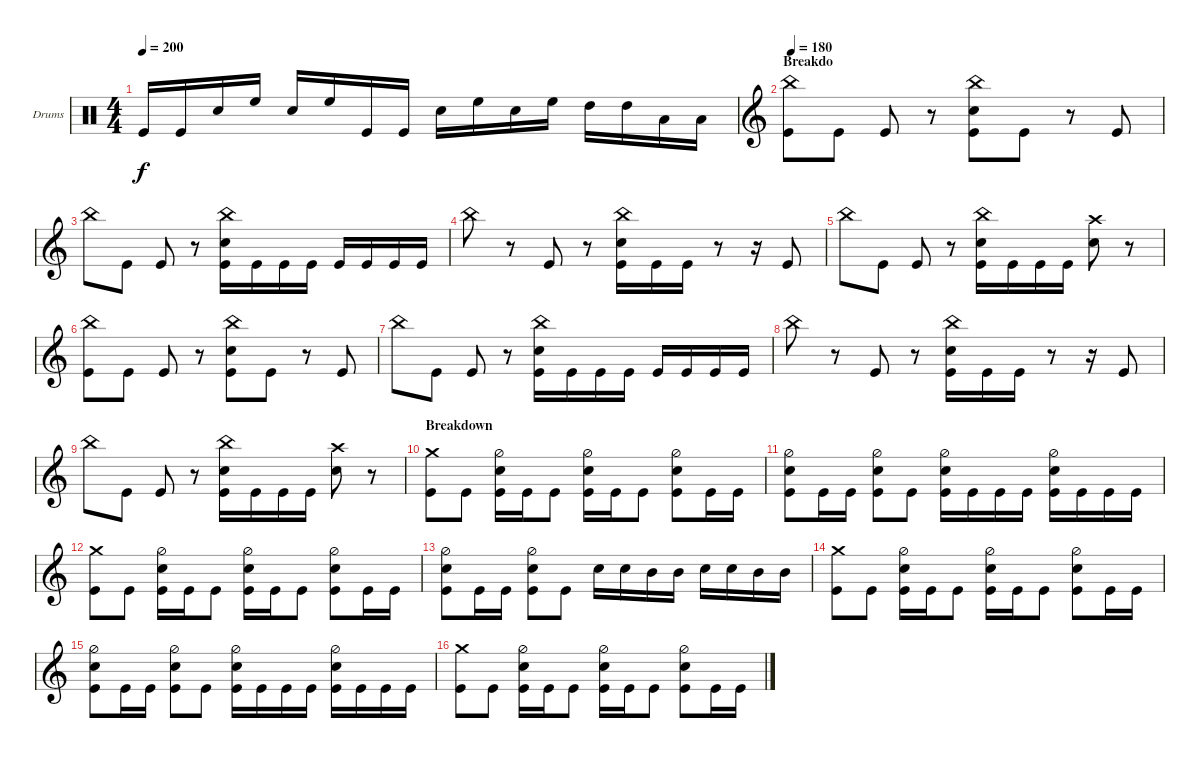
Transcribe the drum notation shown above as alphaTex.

\defaultSystemsLayout 4
\bracketExtendMode groupsimilarinstruments
\firstSystemTrackNameOrientation horizontal
\otherSystemsTrackNameOrientation horizontal
\track ("Drumkit" "Drums") {instrument percussion}
\staff {score}
\articulation defaults
\ts (4 4)
\tempo 200
\clef neutral
\ks c "Kick (hit)".16{dy f} "Kick (hit)".16 "Snare (hit) 2".16 "High Floor Tom (hit)".16 "Snare (hit) 2".16 "High Floor Tom (hit)".16 "Kick (hit)".16 "Kick (hit)".16 "Snare (hit) 2".16 "High Floor Tom (hit)".16 "Snare (hit) 2".16 "High Floor Tom (hit)".16 "High Tom (hit)".16 "High Tom (hit)".16 "Low Tom (hit)".16 "Low Tom (hit)".16
|
\section ("" "Breakdo")
\tempo 180
\clef g2
("Kick (hit)" "China (hit)").8 "Kick (hit)".8 "Kick (hit)".8 r.8 ("Kick (hit)" "China (hit)" "Snare (hit) 2").8 "Kick (hit)".8 r.8 "Kick (hit)".8 |
"China (hit)".8 "Kick (hit)".8 "Kick (hit)".8 r.8 ("Kick (hit)" "China (hit)" "Snare (hit) 2").16 "Kick (hit)".16 "Kick (hit)".16 "Kick (hit)".16 "Kick (hit)".16 "Kick (hit)".16 "Kick (hit)".16 "Kick (hit)".16 |
"China (hit)".8 r.8 "Kick (hit)".8 r.8 ("Kick (hit)" "China (hit)" "Snare (hit) 2").16 "Kick (hit)".16 "Kick (hit)".16 r.8 r.16 "Kick (hit)".8 |
"China (hit)".8 "Kick (hit)".8 "Kick (hit)".8 r.8 ("Kick (hit)" "China (hit)" "Snare (hit) 2").16 "Kick (hit)".16 "Kick (hit)".16 "Kick (hit)".16 ("Snare (hit) 2" "Crash high (hit)").8 r.8 |
("Kick (hit)" "China (hit)").8 "Kick (hit)".8 "Kick (hit)".8 r.8 ("Kick (hit)" "China (hit)" "Snare (hit) 2").8 "Kick (hit)".8 r.8 "Kick (hit)".8 |
"China (hit)".8 "Kick (hit)".8 "Kick (hit)".8 r.8 ("Kick (hit)" "China (hit)" "Snare (hit) 2").16 "Kick (hit)".16 "Kick (hit)".16 "Kick (hit)".16 "Kick (hit)".16 "Kick (hit)".16 "Kick (hit)".16 "Kick (hit)".16 |
"China (hit)".8 r.8 "Kick (hit)".8 r.8 ("Kick (hit)" "China (hit)" "Snare (hit) 2").16 "Kick (hit)".16 "Kick (hit)".16 r.8 r.16 "Kick (hit)".8 |
"China (hit)".8 "Kick (hit)".8 "Kick (hit)".8 r.8 ("Kick (hit)" "China (hit)" "Snare (hit) 2").16 "Kick (hit)".16 "Kick (hit)".16 "Kick (hit)".16 ("Snare (hit) 2" "Crash high (hit)").8 r.8 |
\section ("" "Breakdown")
("Kick (hit)" "Crash medium (hit)").8 "Kick (hit)".8 ("Kick (hit)" "Hi-Hat (half)" "Snare (hit) 2").16 "Kick (hit)".16 "Kick (hit)".8 ("Kick (hit)" "Hi-Hat (half)" "Snare (hit) 2").16 "Kick (hit)".16 "Kick (hit)".8 ("Kick (hit)" "Hi-Hat (half)" "Snare (hit) 2").8 "Kick (hit)".16 "Kick (hit)".16 |
("Kick (hit)" "Hi-Hat (half)" "Snare (hit) 2").8 "Kick (hit)".16 "Kick (hit)".16 ("Kick (hit)" "Hi-Hat (half)" "Snare (hit) 2").8 "Kick (hit)".8 ("Kick (hit)" "Hi-Hat (half)" "Snare (hit) 2").16 "Kick (hit)".16 "Kick (hit)".16 "Kick (hit)".16 ("Kick (hit)" "Hi-Hat (half)" "Snare (hit) 2").16 "Kick (hit)".16 "Kick (hit)".16 "Kick (hit)".16 |
("Kick (hit)" "Crash medium (hit)").8 "Kick (hit)".8 ("Kick (hit)" "Hi-Hat (half)" "Snare (hit) 2").16 "Kick (hit)".16 "Kick (hit)".8 ("Kick (hit)" "Hi-Hat (half)" "Snare (hit) 2").16 "Kick (hit)".16 "Kick (hit)".8 ("Kick (hit)" "Hi-Hat (half)" "Snare (hit) 2").8 "Kick (hit)".16 "Kick (hit)".16 |
("Kick (hit)" "Hi-Hat (half)" "Snare (hit) 2").8 "Kick (hit)".16 "Kick (hit)".16 ("Kick (hit)" "Hi-Hat (half)" "Snare (hit) 2").8 "Kick (hit)".8 "Snare (hit) 2".16 "Snare (hit) 2".16 "Mid Tom (hit)".16 "Mid Tom (hit)".16 "Snare (hit) 2".16 "Snare (hit) 2".16 "Mid Tom (hit)".16 "Mid Tom (hit)".16 |
("Kick (hit)" "Crash medium (hit)").8 "Kick (hit)".8 ("Kick (hit)" "Hi-Hat (half)" "Snare (hit) 2").16 "Kick (hit)".16 "Kick (hit)".8 ("Kick (hit)" "Hi-Hat (half)" "Snare (hit) 2").16 "Kick (hit)".16 "Kick (hit)".8 ("Kick (hit)" "Hi-Hat (half)" "Snare (hit) 2").8 "Kick (hit)".16 "Kick (hit)".16 |
("Kick (hit)" "Hi-Hat (half)" "Snare (hit) 2").8 "Kick (hit)".16 "Kick (hit)".16 ("Kick (hit)" "Hi-Hat (half)" "Snare (hit) 2").8 "Kick (hit)".8 ("Kick (hit)" "Hi-Hat (half)" "Snare (hit) 2").16 "Kick (hit)".16 "Kick (hit)".16 "Kick (hit)".16 ("Kick (hit)" "Hi-Hat (half)" "Snare (hit) 2").16 "Kick (hit)".16 "Kick (hit)".16 "Kick (hit)".16 |
("Kick (hit)" "Crash medium (hit)").8 "Kick (hit)".8 ("Kick (hit)" "Hi-Hat (half)" "Snare (hit) 2").16 "Kick (hit)".16 "Kick (hit)".8 ("Kick (hit)" "Hi-Hat (half)" "Snare (hit) 2").16 "Kick (hit)".16 "Kick (hit)".8 ("Kick (hit)" "Hi-Hat (half)" "Snare (hit) 2").8 "Kick (hit)".16 "Kick (hit)".16
